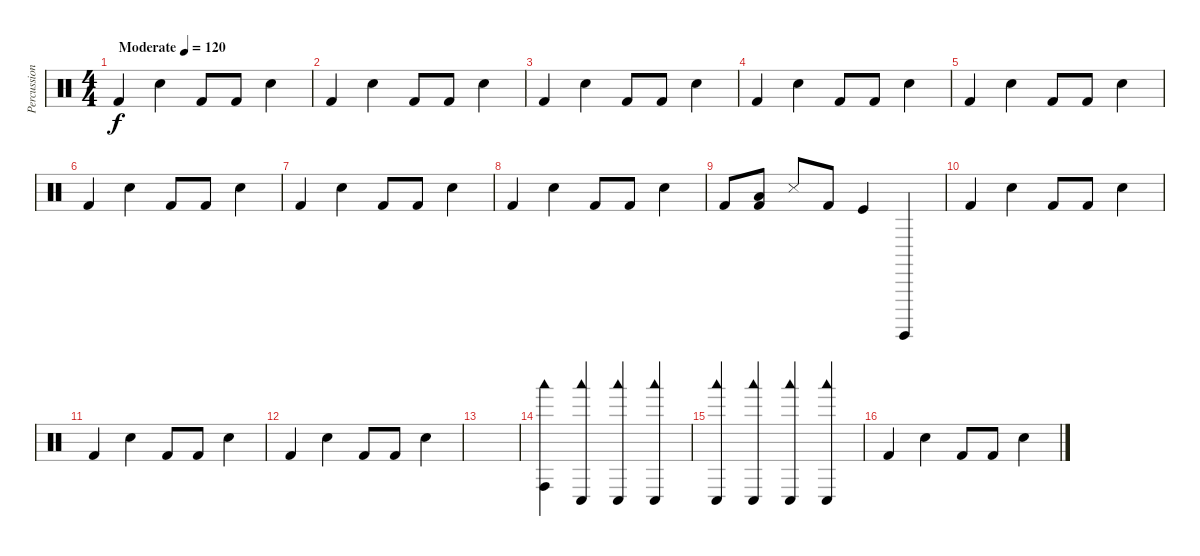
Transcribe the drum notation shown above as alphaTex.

\track ("Percussion" "Percussion") {instrument percussion}
\staff {score}
\articulation defaults
\ts (4 4)
\tempo (120 "Moderate")
\clef neutral
\ks c "Kick (hit) 2".4{dy f} "Snare (hit) 2".4 "Kick (hit) 2".8 "Kick (hit) 2".8 "Snare (hit) 2".4
|
"Kick (hit) 2".4 "Snare (hit) 2".4 "Kick (hit) 2".8 "Kick (hit) 2".8 "Snare (hit) 2".4 |
"Kick (hit) 2".4 "Snare (hit) 2".4 "Kick (hit) 2".8 "Kick (hit) 2".8 "Snare (hit) 2".4 |
"Kick (hit) 2".4 "Snare (hit) 2".4 "Kick (hit) 2".8 "Kick (hit) 2".8 "Snare (hit) 2".4 |
"Kick (hit) 2".4 "Snare (hit) 2".4 "Kick (hit) 2".8 "Kick (hit) 2".8 "Snare (hit) 2".4 |
"Kick (hit) 2".4 "Snare (hit) 2".4 "Kick (hit) 2".8 "Kick (hit) 2".8 "Snare (hit) 2".4 |
"Kick (hit) 2".4 "Snare (hit) 2".4 "Kick (hit) 2".8 "Kick (hit) 2".8 "Snare (hit) 2".4 |
"Kick (hit) 2".4 "Snare (hit) 2".4 "Kick (hit) 2".8 "Kick (hit) 2".8 "Snare (hit) 2".4 |
"Kick (hit) 2".8 ("Low Floor Tom (hit)" "Kick (hit) 2").8 "Snare (side stick) 3".8 "Kick (hit) 2".8 "Kick (hit)".4 "Surdo (hit)".4 |
"Kick (hit) 2".4 "Snare (hit) 2".4 "Kick (hit) 2".8 "Kick (hit) 2".8 "Snare (hit) 2".4 |
"Kick (hit) 2".4 "Snare (hit) 2".4 "Kick (hit) 2".8 "Kick (hit) 2".8 "Snare (hit) 2".4 |
"Kick (hit) 2".4 "Snare (hit) 2".4 "Kick (hit) 2".8 "Kick (hit) 2".8 "Snare (hit) 2".4 |
|
("Conga high (hit)" "Woodblock low (hit)").4 ("Conga low (hit)" "Woodblock low (hit)").4 ("Conga low (hit)" "Woodblock low (hit)").4 ("Conga low (hit)" "Woodblock low (hit)").4 |
("Conga low (hit)" "Woodblock low (hit)").4 ("Conga low (hit)" "Woodblock low (hit)").4 ("Conga low (hit)" "Woodblock low (hit)").4 ("Conga low (hit)" "Woodblock low (hit)").4 |
"Kick (hit) 2".4 "Snare (hit) 2".4 "Kick (hit) 2".8 "Kick (hit) 2".8 "Snare (hit) 2".4
